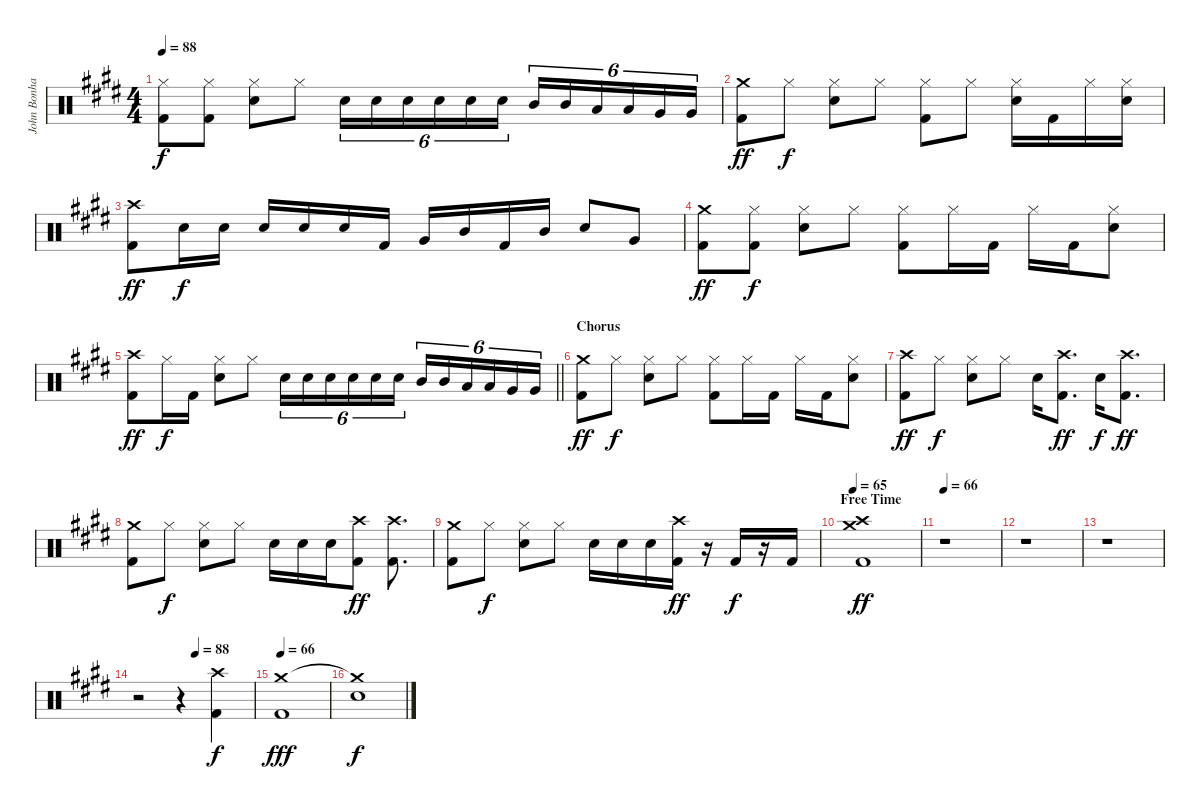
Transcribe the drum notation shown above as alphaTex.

\track ("John Bonham Drums" "John Bonha") {instrument percussion}
\staff {score}
\articulation defaults
\ts (4 4)
\tempo 88
\clef neutral
\ks e
("Hi-Hat (closed)" "Kick (hit) 2").8{dy f} ("Hi-Hat (closed)" "Kick (hit) 2").8 ("Hi-Hat (closed)" "Snare (hit) 2").8 "Hi-Hat (closed)".8 "Snare (hit) 2".16{tu (6 4)} "Snare (hit) 2".16{tu (6 4)} "Snare (hit) 2".16{tu (6 4)} "Snare (hit) 2".16{tu (6 4)} "Snare (hit) 2".16{tu (6 4)} "Snare (hit) 2".16{tu (6 4)} "Mid Tom (hit)".16{tu (6 4)} "Mid Tom (hit)".16{tu (6 4)} "Low Tom (hit)".16{tu (6 4)} "Low Tom (hit)".16{tu (6 4)} "Very Low Tom (hit)".16{tu (6 4)} "Very Low Tom (hit)".16{tu (6 4)} |
("Crash medium (hit)" "Kick (hit) 2").8{dy ff} "Hi-Hat (closed)".8{dy f} ("Hi-Hat (closed)" "Snare (hit) 2").8 "Hi-Hat (closed)".8 ("Hi-Hat (closed)" "Kick (hit) 2").8 "Hi-Hat (closed)".8 ("Hi-Hat (closed)" "Snare (hit) 2").16 "Kick (hit) 2".16 "Hi-Hat (closed)".16 ("Hi-Hat (closed)" "Snare (hit) 2").16 |
("Crash high (hit)" "Kick (hit) 2").8{dy ff} "Snare (hit) 2".16{dy f} "Snare (hit) 2".16 "Snare (hit) 2".16 "Snare (hit) 2".16 "Snare (hit) 2".16 "Kick (hit) 2".16 "Very Low Tom (hit)".16 "Mid Tom (hit)".16 "Kick (hit) 2".16 "Mid Tom (hit)".16 "Snare (hit) 2".8 "Very Low Tom (hit)".8 |
("Crash medium (hit)" "Kick (hit) 2").8{dy ff} ("Hi-Hat (closed)" "Kick (hit) 2").8{dy f} ("Hi-Hat (closed)" "Snare (hit) 2").8 "Hi-Hat (closed)".8 ("Hi-Hat (closed)" "Kick (hit) 2").8 "Hi-Hat (closed)".16 "Kick (hit) 2".16 "Hi-Hat (closed)".16 "Kick (hit) 2".16 ("Hi-Hat (closed)" "Snare (hit) 2").8 |
\barLineRight lightlight
("Crash high (hit)" "Kick (hit) 2").8{dy ff} "Hi-Hat (closed)".16{dy f} "Kick (hit) 2".16 ("Hi-Hat (closed)" "Snare (hit) 2").8 "Hi-Hat (closed)".8 "Snare (hit) 2".16{tu (6 4)} "Snare (hit) 2".16{tu (6 4)} "Snare (hit) 2".16{tu (6 4)} "Snare (hit) 2".16{tu (6 4)} "Snare (hit) 2".16{tu (6 4)} "Snare (hit) 2".16{tu (6 4)} "Mid Tom (hit)".16{tu (6 4)} "Mid Tom (hit)".16{tu (6 4)} "Low Tom (hit)".16{tu (6 4)} "Low Tom (hit)".16{tu (6 4)} "Very Low Tom (hit)".16{tu (6 4)} "Very Low Tom (hit)".16{tu (6 4)} |
\section ("" "Chorus")
("Crash medium (hit)" "Kick (hit) 2").8{dy ff} "Hi-Hat (closed)".8{dy f} ("Hi-Hat (closed)" "Snare (hit) 2").8 "Hi-Hat (closed)".8 ("Hi-Hat (closed)" "Kick (hit) 2").8 "Hi-Hat (closed)".16 "Kick (hit) 2".16 "Hi-Hat (closed)".16 "Kick (hit) 2".16 ("Hi-Hat (closed)" "Snare (hit) 2").8 |
("Crash high (hit)" "Kick (hit) 2").8{dy ff} "Hi-Hat (closed)".8{dy f} ("Hi-Hat (closed)" "Snare (hit) 2").8 "Hi-Hat (closed)".8 "Snare (hit) 2".16 ("Crash high (hit)" "Kick (hit) 2").8{d dy ff} "Snare (hit) 2".16{dy f} ("Crash high (hit)" "Kick (hit) 2").8{d dy ff} |
("Crash medium (hit)" "Kick (hit) 2").8 "Hi-Hat (closed)".8{dy f} ("Hi-Hat (closed)" "Snare (hit) 2").8 "Hi-Hat (closed)".8 "Snare (hit) 2".16 "Snare (hit) 2".16 "Snare (hit) 2".16 ("Crash high (hit)" "Kick (hit) 2").8{dy ff} ("Crash high (hit)" "Kick (hit) 2").8{d} |
("Crash medium (hit)" "Kick (hit) 2").8 "Hi-Hat (closed)".8{dy f} ("Hi-Hat (closed)" "Snare (hit) 2").8 "Hi-Hat (closed)".8 "Snare (hit) 2".16 "Snare (hit) 2".16 "Snare (hit) 2".16 ("Crash high (hit)" "Kick (hit) 2").16{dy ff} r.16 "Kick (hit) 2".16{dy f} r.16 "Kick (hit) 2".16 |
\section ("" "Free Time")
\tempo 65
("Crash high (hit)" "Crash medium (hit)" "Kick (hit) 2").1{dy ff} |
\tempo 66
r.1 |
r.1 |
r.1 |
\tempo (88 0.5)
r.2 r.4 ("Crash high (hit)" "Kick (hit) 2").4{dy f} |
\tempo 66
("Crash medium (hit)" "Kick (hit) 2").1{dy fff} |
("Crash medium (hit)"{t} "Snare (hit)").1{dy f}
